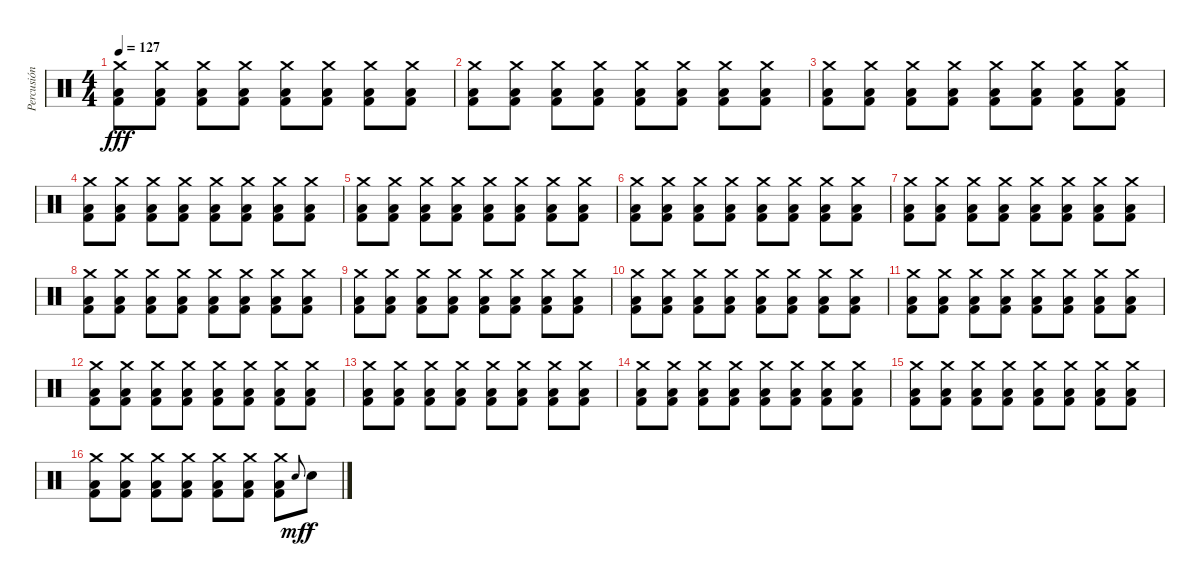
\track ("Percusión" "Percusión") {instrument percussion}
\staff {score}
\articulation defaults
\ts (4 4)
\tempo 127
\clef neutral
\ks c
("Crash medium (hit)" "Low Floor Tom (hit)" "Kick (hit) 2").8{dy fff} ("Crash medium (hit)" "Low Floor Tom (hit)" "Kick (hit) 2").8 ("Crash medium (hit)" "Low Floor Tom (hit)" "Kick (hit) 2").8 ("Crash medium (hit)" "Low Floor Tom (hit)" "Kick (hit) 2").8 ("Crash medium (hit)" "Low Floor Tom (hit)" "Kick (hit) 2").8 ("Crash medium (hit)" "Low Floor Tom (hit)" "Kick (hit) 2").8 ("Crash medium (hit)" "Low Floor Tom (hit)" "Kick (hit) 2").8 ("Crash medium (hit)" "Low Floor Tom (hit)" "Kick (hit) 2").8 |
("Crash medium (hit)" "Low Floor Tom (hit)" "Kick (hit) 2").8 ("Crash medium (hit)" "Low Floor Tom (hit)" "Kick (hit) 2").8 ("Crash medium (hit)" "Low Floor Tom (hit)" "Kick (hit) 2").8 ("Crash medium (hit)" "Low Floor Tom (hit)" "Kick (hit) 2").8 ("Crash medium (hit)" "Low Floor Tom (hit)" "Kick (hit) 2").8 ("Crash medium (hit)" "Low Floor Tom (hit)" "Kick (hit) 2").8 ("Crash medium (hit)" "Low Floor Tom (hit)" "Kick (hit) 2").8 ("Crash medium (hit)" "Low Floor Tom (hit)" "Kick (hit) 2").8 |
("Crash medium (hit)" "Low Floor Tom (hit)" "Kick (hit) 2").8 ("Crash medium (hit)" "Low Floor Tom (hit)" "Kick (hit) 2").8 ("Crash medium (hit)" "Low Floor Tom (hit)" "Kick (hit) 2").8 ("Crash medium (hit)" "Low Floor Tom (hit)" "Kick (hit) 2").8 ("Crash medium (hit)" "Low Floor Tom (hit)" "Kick (hit) 2").8 ("Crash medium (hit)" "Low Floor Tom (hit)" "Kick (hit) 2").8 ("Crash medium (hit)" "Low Floor Tom (hit)" "Kick (hit) 2").8 ("Crash medium (hit)" "Low Floor Tom (hit)" "Kick (hit) 2").8 |
("Crash medium (hit)" "Low Floor Tom (hit)" "Kick (hit) 2").8 ("Crash medium (hit)" "Low Floor Tom (hit)" "Kick (hit) 2").8 ("Crash medium (hit)" "Low Floor Tom (hit)" "Kick (hit) 2").8 ("Crash medium (hit)" "Low Floor Tom (hit)" "Kick (hit) 2").8 ("Crash medium (hit)" "Low Floor Tom (hit)" "Kick (hit) 2").8 ("Crash medium (hit)" "Low Floor Tom (hit)" "Kick (hit) 2").8 ("Crash medium (hit)" "Low Floor Tom (hit)" "Kick (hit) 2").8 ("Crash medium (hit)" "Low Floor Tom (hit)" "Kick (hit) 2").8 |
("Crash medium (hit)" "Low Floor Tom (hit)" "Kick (hit) 2").8 ("Crash medium (hit)" "Low Floor Tom (hit)" "Kick (hit) 2").8 ("Crash medium (hit)" "Low Floor Tom (hit)" "Kick (hit) 2").8 ("Crash medium (hit)" "Low Floor Tom (hit)" "Kick (hit) 2").8 ("Crash medium (hit)" "Low Floor Tom (hit)" "Kick (hit) 2").8 ("Crash medium (hit)" "Low Floor Tom (hit)" "Kick (hit) 2").8 ("Crash medium (hit)" "Low Floor Tom (hit)" "Kick (hit) 2").8 ("Crash medium (hit)" "Low Floor Tom (hit)" "Kick (hit) 2").8 |
("Crash medium (hit)" "Low Floor Tom (hit)" "Kick (hit) 2").8 ("Crash medium (hit)" "Low Floor Tom (hit)" "Kick (hit) 2").8 ("Crash medium (hit)" "Low Floor Tom (hit)" "Kick (hit) 2").8 ("Crash medium (hit)" "Low Floor Tom (hit)" "Kick (hit) 2").8 ("Crash medium (hit)" "Low Floor Tom (hit)" "Kick (hit) 2").8 ("Crash medium (hit)" "Low Floor Tom (hit)" "Kick (hit) 2").8 ("Crash medium (hit)" "Low Floor Tom (hit)" "Kick (hit) 2").8 ("Crash medium (hit)" "Low Floor Tom (hit)" "Kick (hit) 2").8 |
("Crash medium (hit)" "Low Floor Tom (hit)" "Kick (hit) 2").8 ("Crash medium (hit)" "Low Floor Tom (hit)" "Kick (hit) 2").8 ("Crash medium (hit)" "Low Floor Tom (hit)" "Kick (hit) 2").8 ("Crash medium (hit)" "Low Floor Tom (hit)" "Kick (hit) 2").8 ("Crash medium (hit)" "Low Floor Tom (hit)" "Kick (hit) 2").8 ("Crash medium (hit)" "Low Floor Tom (hit)" "Kick (hit) 2").8 ("Crash medium (hit)" "Low Floor Tom (hit)" "Kick (hit) 2").8 ("Crash medium (hit)" "Low Floor Tom (hit)" "Kick (hit) 2").8 |
("Crash medium (hit)" "Low Floor Tom (hit)" "Kick (hit) 2").8 ("Crash medium (hit)" "Low Floor Tom (hit)" "Kick (hit) 2").8 ("Crash medium (hit)" "Low Floor Tom (hit)" "Kick (hit) 2").8 ("Crash medium (hit)" "Low Floor Tom (hit)" "Kick (hit) 2").8 ("Crash medium (hit)" "Low Floor Tom (hit)" "Kick (hit) 2").8 ("Crash medium (hit)" "Low Floor Tom (hit)" "Kick (hit) 2").8 ("Crash medium (hit)" "Low Floor Tom (hit)" "Kick (hit) 2").8 ("Crash medium (hit)" "Low Floor Tom (hit)" "Kick (hit) 2").8 |
("Crash medium (hit)" "Low Floor Tom (hit)" "Kick (hit) 2").8 ("Crash medium (hit)" "Low Floor Tom (hit)" "Kick (hit) 2").8 ("Crash medium (hit)" "Low Floor Tom (hit)" "Kick (hit) 2").8 ("Crash medium (hit)" "Low Floor Tom (hit)" "Kick (hit) 2").8 ("Crash medium (hit)" "Low Floor Tom (hit)" "Kick (hit) 2").8 ("Crash medium (hit)" "Low Floor Tom (hit)" "Kick (hit) 2").8 ("Crash medium (hit)" "Low Floor Tom (hit)" "Kick (hit) 2").8 ("Crash medium (hit)" "Low Floor Tom (hit)" "Kick (hit) 2").8 |
("Crash medium (hit)" "Low Floor Tom (hit)" "Kick (hit) 2").8 ("Crash medium (hit)" "Low Floor Tom (hit)" "Kick (hit) 2").8 ("Crash medium (hit)" "Low Floor Tom (hit)" "Kick (hit) 2").8 ("Crash medium (hit)" "Low Floor Tom (hit)" "Kick (hit) 2").8 ("Crash medium (hit)" "Low Floor Tom (hit)" "Kick (hit) 2").8 ("Crash medium (hit)" "Low Floor Tom (hit)" "Kick (hit) 2").8 ("Crash medium (hit)" "Low Floor Tom (hit)" "Kick (hit) 2").8 ("Crash medium (hit)" "Low Floor Tom (hit)" "Kick (hit) 2").8 |
("Crash medium (hit)" "Low Floor Tom (hit)" "Kick (hit) 2").8 ("Crash medium (hit)" "Low Floor Tom (hit)" "Kick (hit) 2").8 ("Crash medium (hit)" "Low Floor Tom (hit)" "Kick (hit) 2").8 ("Crash medium (hit)" "Low Floor Tom (hit)" "Kick (hit) 2").8 ("Crash medium (hit)" "Low Floor Tom (hit)" "Kick (hit) 2").8 ("Crash medium (hit)" "Low Floor Tom (hit)" "Kick (hit) 2").8 ("Crash medium (hit)" "Low Floor Tom (hit)" "Kick (hit) 2").8 ("Crash medium (hit)" "Low Floor Tom (hit)" "Kick (hit) 2").8 |
("Crash medium (hit)" "Low Floor Tom (hit)" "Kick (hit) 2").8 ("Crash medium (hit)" "Low Floor Tom (hit)" "Kick (hit) 2").8 ("Crash medium (hit)" "Low Floor Tom (hit)" "Kick (hit) 2").8 ("Crash medium (hit)" "Low Floor Tom (hit)" "Kick (hit) 2").8 ("Crash medium (hit)" "Low Floor Tom (hit)" "Kick (hit) 2").8 ("Crash medium (hit)" "Low Floor Tom (hit)" "Kick (hit) 2").8 ("Crash medium (hit)" "Low Floor Tom (hit)" "Kick (hit) 2").8 ("Crash medium (hit)" "Low Floor Tom (hit)" "Kick (hit) 2").8 |
("Crash medium (hit)" "Low Floor Tom (hit)" "Kick (hit) 2").8 ("Crash medium (hit)" "Low Floor Tom (hit)" "Kick (hit) 2").8 ("Crash medium (hit)" "Low Floor Tom (hit)" "Kick (hit) 2").8 ("Crash medium (hit)" "Low Floor Tom (hit)" "Kick (hit) 2").8 ("Crash medium (hit)" "Low Floor Tom (hit)" "Kick (hit) 2").8 ("Crash medium (hit)" "Low Floor Tom (hit)" "Kick (hit) 2").8 ("Crash medium (hit)" "Low Floor Tom (hit)" "Kick (hit) 2").8 ("Crash medium (hit)" "Low Floor Tom (hit)" "Kick (hit) 2").8 |
("Crash medium (hit)" "Low Floor Tom (hit)" "Kick (hit) 2").8 ("Crash medium (hit)" "Low Floor Tom (hit)" "Kick (hit) 2").8 ("Crash medium (hit)" "Low Floor Tom (hit)" "Kick (hit) 2").8 ("Crash medium (hit)" "Low Floor Tom (hit)" "Kick (hit) 2").8 ("Crash medium (hit)" "Low Floor Tom (hit)" "Kick (hit) 2").8 ("Crash medium (hit)" "Low Floor Tom (hit)" "Kick (hit) 2").8 ("Crash medium (hit)" "Low Floor Tom (hit)" "Kick (hit) 2").8 ("Crash medium (hit)" "Low Floor Tom (hit)" "Kick (hit) 2").8 |
("Crash medium (hit)" "Low Floor Tom (hit)" "Kick (hit) 2").8 ("Crash medium (hit)" "Low Floor Tom (hit)" "Kick (hit) 2").8 ("Crash medium (hit)" "Low Floor Tom (hit)" "Kick (hit) 2").8 ("Crash medium (hit)" "Low Floor Tom (hit)" "Kick (hit) 2").8 ("Crash medium (hit)" "Low Floor Tom (hit)" "Kick (hit) 2").8 ("Crash medium (hit)" "Low Floor Tom (hit)" "Kick (hit) 2").8 ("Crash medium (hit)" "Low Floor Tom (hit)" "Kick (hit) 2").8 ("Crash medium (hit)" "Low Floor Tom (hit)" "Kick (hit) 2").8 |
("Crash medium (hit)" "Low Floor Tom (hit)" "Kick (hit) 2").8 ("Crash medium (hit)" "Low Floor Tom (hit)" "Kick (hit) 2").8 ("Crash medium (hit)" "Low Floor Tom (hit)" "Kick (hit) 2").8 ("Crash medium (hit)" "Low Floor Tom (hit)" "Kick (hit) 2").8 ("Crash medium (hit)" "Low Floor Tom (hit)" "Kick (hit) 2").8 ("Crash medium (hit)" "Low Floor Tom (hit)" "Kick (hit) 2").8 ("Crash medium (hit)" "Low Floor Tom (hit)" "Kick (hit) 2").8 "Electric Snare (hit)".8{gr onbeat dy mf} "Electric Snare (hit)".8{dy f}
